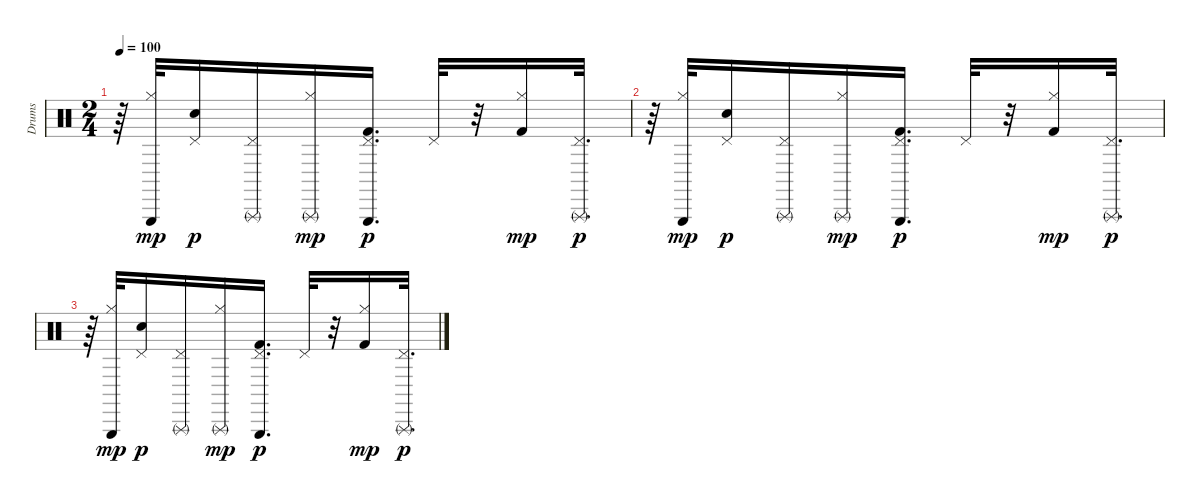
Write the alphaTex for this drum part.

\track ("Drums" "Drums") {instrument percussion}
\staff {score}
\articulation defaults
\ts (2 4)
\tempo 100
\clef neutral
\ks c
r.64{dy p} ("Triangle (hit)" "Hi-Hat (closed)").32{dy mp} ("Pedal Hi-Hat (hit)" "Electric Snare (hit)").16{dy p} ("Triangle (rnute)" "Pedal Hi-Hat (hit)").16 ("Triangle (rnute)" "Hi-Hat (closed)").16{dy mp} ("Triangle (hit)" "Kick (hit) 2" "Pedal Hi-Hat (hit)").16{d dy p} "Pedal Hi-Hat (hit)".32 r.32 ("Kick (hit) 2" "Hi-Hat (closed)").16{dy mp} ("Triangle (rnute)" "Pedal Hi-Hat (hit)").32{d dy p} |
r.64 ("Triangle (hit)" "Hi-Hat (closed)").32{dy mp} ("Pedal Hi-Hat (hit)" "Electric Snare (hit)").16{dy p} ("Triangle (rnute)" "Pedal Hi-Hat (hit)").16 ("Triangle (rnute)" "Hi-Hat (closed)").16{dy mp} ("Triangle (hit)" "Kick (hit) 2" "Pedal Hi-Hat (hit)").16{d dy p} "Pedal Hi-Hat (hit)".32 r.32 ("Kick (hit) 2" "Hi-Hat (closed)").16{dy mp} ("Triangle (rnute)" "Pedal Hi-Hat (hit)").32{d dy p} |
r.64 ("Triangle (hit)" "Hi-Hat (closed)").32{dy mp} ("Pedal Hi-Hat (hit)" "Electric Snare (hit)").16{dy p} ("Triangle (rnute)" "Pedal Hi-Hat (hit)").16 ("Triangle (rnute)" "Hi-Hat (closed)").16{dy mp} ("Triangle (hit)" "Kick (hit) 2" "Pedal Hi-Hat (hit)").16{d dy p} "Pedal Hi-Hat (hit)".32 r.32 ("Kick (hit) 2" "Hi-Hat (closed)").16{dy mp} ("Triangle (rnute)" "Pedal Hi-Hat (hit)").32{d dy p}
